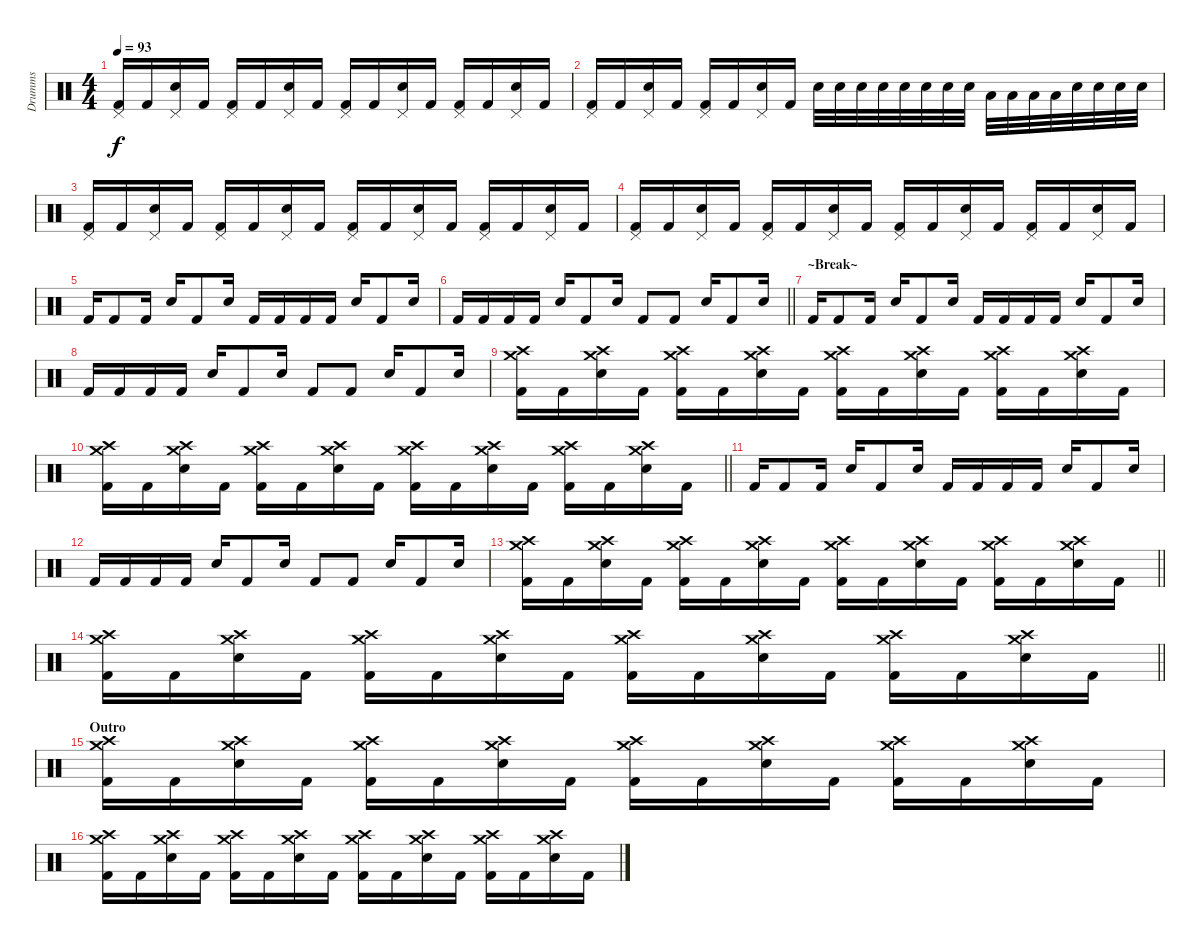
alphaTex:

\track ("Drumms" "Drumms") {instrument percussion}
\staff {score}
\articulation defaults
\ts (4 4)
\tempo 93
\clef neutral
\ks c
("Pedal Hi-Hat (hit)" "Kick (hit) 2").16{dy f} "Kick (hit) 2".16 ("Pedal Hi-Hat (hit)" "Electric Snare (hit)").16 "Kick (hit) 2".16 ("Pedal Hi-Hat (hit)" "Kick (hit) 2").16 "Kick (hit) 2".16 ("Pedal Hi-Hat (hit)" "Electric Snare (hit)").16 "Kick (hit) 2".16 ("Pedal Hi-Hat (hit)" "Kick (hit) 2").16 "Kick (hit) 2".16 ("Pedal Hi-Hat (hit)" "Electric Snare (hit)").16 "Kick (hit) 2".16 ("Pedal Hi-Hat (hit)" "Kick (hit) 2").16 "Kick (hit) 2".16 ("Pedal Hi-Hat (hit)" "Electric Snare (hit)").16 "Kick (hit) 2".16 |
("Pedal Hi-Hat (hit)" "Kick (hit) 2").16 "Kick (hit) 2".16 ("Pedal Hi-Hat (hit)" "Electric Snare (hit)").16 "Kick (hit) 2".16 ("Pedal Hi-Hat (hit)" "Kick (hit) 2").16 "Kick (hit) 2".16 ("Pedal Hi-Hat (hit)" "Electric Snare (hit)").16 "Kick (hit) 2".16 "Electric Snare (hit)".32 "Electric Snare (hit)".32 "Electric Snare (hit)".32 "Electric Snare (hit)".32 "Snare (hit) 2".32 "Snare (hit) 2".32 "Snare (hit) 2".32 "Snare (hit) 2".32 "Low Tom (hit)".32 "Low Tom (hit)".32 "Low Tom (hit)".32 "Low Tom (hit)".32 "Snare (hit) 2".32 "Snare (hit) 2".32 "Snare (hit) 2".32 "Snare (hit) 2".32 |
("Pedal Hi-Hat (hit)" "Kick (hit) 2").16 "Kick (hit) 2".16 ("Pedal Hi-Hat (hit)" "Electric Snare (hit)").16 "Kick (hit) 2".16 ("Pedal Hi-Hat (hit)" "Kick (hit) 2").16 "Kick (hit) 2".16 ("Pedal Hi-Hat (hit)" "Electric Snare (hit)").16 "Kick (hit) 2".16 ("Pedal Hi-Hat (hit)" "Kick (hit) 2").16 "Kick (hit) 2".16 ("Pedal Hi-Hat (hit)" "Electric Snare (hit)").16 "Kick (hit) 2".16 ("Pedal Hi-Hat (hit)" "Kick (hit) 2").16 "Kick (hit) 2".16 ("Pedal Hi-Hat (hit)" "Electric Snare (hit)").16 "Kick (hit) 2".16 |
("Pedal Hi-Hat (hit)" "Kick (hit) 2").16 "Kick (hit) 2".16 ("Pedal Hi-Hat (hit)" "Electric Snare (hit)").16 "Kick (hit) 2".16 ("Pedal Hi-Hat (hit)" "Kick (hit) 2").16 "Kick (hit) 2".16 ("Pedal Hi-Hat (hit)" "Electric Snare (hit)").16 "Kick (hit) 2".16 ("Pedal Hi-Hat (hit)" "Kick (hit) 2").16 "Kick (hit) 2".16 ("Pedal Hi-Hat (hit)" "Electric Snare (hit)").16 "Kick (hit) 2".16 ("Pedal Hi-Hat (hit)" "Kick (hit) 2").16 "Kick (hit) 2".16 ("Pedal Hi-Hat (hit)" "Electric Snare (hit)").16 "Kick (hit) 2".16 |
"Kick (hit) 2".16 "Kick (hit) 2".8 "Kick (hit) 2".16 "Electric Snare (hit)".16 "Kick (hit) 2".8 "Electric Snare (hit)".16 "Kick (hit) 2".16 "Kick (hit) 2".16 "Kick (hit) 2".16 "Kick (hit) 2".16 "Electric Snare (hit)".16 "Kick (hit) 2".8 "Electric Snare (hit)".16 |
\barLineRight lightlight "Kick (hit) 2".16 "Kick (hit) 2".16 "Kick (hit) 2".16 "Kick (hit) 2".16 "Electric Snare (hit)".16 "Kick (hit) 2".8 "Electric Snare (hit)".16 "Kick (hit) 2".8 "Kick (hit) 2".8 "Electric Snare (hit)".16 "Kick (hit) 2".8 "Electric Snare (hit)".16
|
\section ("" "~Break~")
"Kick (hit) 2".16 "Kick (hit) 2".8 "Kick (hit) 2".16 "Electric Snare (hit)".16 "Kick (hit) 2".8 "Electric Snare (hit)".16 "Kick (hit) 2".16 "Kick (hit) 2".16 "Kick (hit) 2".16 "Kick (hit) 2".16 "Electric Snare (hit)".16 "Kick (hit) 2".8 "Electric Snare (hit)".16 |
"Kick (hit) 2".16 "Kick (hit) 2".16 "Kick (hit) 2".16 "Kick (hit) 2".16 "Electric Snare (hit)".16 "Kick (hit) 2".8 "Electric Snare (hit)".16 "Kick (hit) 2".8 "Kick (hit) 2".8 "Electric Snare (hit)".16 "Kick (hit) 2".8 "Electric Snare (hit)".16 |
("Crash medium (hit)" "Crash high (hit)" "Kick (hit) 2").16 "Kick (hit) 2".16 ("Crash medium (hit)" "Crash high (hit)" "Electric Snare (hit)").16 "Kick (hit) 2".16 ("Crash medium (hit)" "Crash high (hit)" "Kick (hit) 2").16 "Kick (hit) 2".16 ("Crash medium (hit)" "Crash high (hit)" "Electric Snare (hit)").16 "Kick (hit) 2".16 ("Crash medium (hit)" "Crash high (hit)" "Kick (hit) 2").16 "Kick (hit) 2".16 ("Crash medium (hit)" "Crash high (hit)" "Electric Snare (hit)").16 "Kick (hit) 2".16 ("Crash medium (hit)" "Crash high (hit)" "Kick (hit) 2").16 "Kick (hit) 2".16 ("Crash medium (hit)" "Crash high (hit)" "Electric Snare (hit)").16 "Kick (hit) 2".16 |
\barLineRight lightlight
("Crash medium (hit)" "Crash high (hit)" "Kick (hit) 2").16 "Kick (hit) 2".16 ("Crash medium (hit)" "Crash high (hit)" "Electric Snare (hit)").16 "Kick (hit) 2".16 ("Crash medium (hit)" "Crash high (hit)" "Kick (hit) 2").16 "Kick (hit) 2".16 ("Crash medium (hit)" "Crash high (hit)" "Electric Snare (hit)").16 "Kick (hit) 2".16 ("Crash medium (hit)" "Crash high (hit)" "Kick (hit) 2").16 "Kick (hit) 2".16 ("Crash medium (hit)" "Crash high (hit)" "Electric Snare (hit)").16 "Kick (hit) 2".16 ("Crash medium (hit)" "Crash high (hit)" "Kick (hit) 2").16 "Kick (hit) 2".16 ("Crash medium (hit)" "Crash high (hit)" "Electric Snare (hit)").16 "Kick (hit) 2".16 |
"Kick (hit) 2".16 "Kick (hit) 2".8 "Kick (hit) 2".16 "Electric Snare (hit)".16 "Kick (hit) 2".8 "Electric Snare (hit)".16 "Kick (hit) 2".16 "Kick (hit) 2".16 "Kick (hit) 2".16 "Kick (hit) 2".16 "Electric Snare (hit)".16 "Kick (hit) 2".8 "Electric Snare (hit)".16 |
"Kick (hit) 2".16 "Kick (hit) 2".16 "Kick (hit) 2".16 "Kick (hit) 2".16 "Electric Snare (hit)".16 "Kick (hit) 2".8 "Electric Snare (hit)".16 "Kick (hit) 2".8 "Kick (hit) 2".8 "Electric Snare (hit)".16 "Kick (hit) 2".8 "Electric Snare (hit)".16 |
\barLineRight lightlight
("Crash medium (hit)" "Crash high (hit)" "Kick (hit) 2").16 "Kick (hit) 2".16 ("Crash medium (hit)" "Crash high (hit)" "Electric Snare (hit)").16 "Kick (hit) 2".16 ("Crash medium (hit)" "Crash high (hit)" "Kick (hit) 2").16 "Kick (hit) 2".16 ("Crash medium (hit)" "Crash high (hit)" "Electric Snare (hit)").16 "Kick (hit) 2".16 ("Crash medium (hit)" "Crash high (hit)" "Kick (hit) 2").16 "Kick (hit) 2".16 ("Crash medium (hit)" "Crash high (hit)" "Electric Snare (hit)").16 "Kick (hit) 2".16 ("Crash medium (hit)" "Crash high (hit)" "Kick (hit) 2").16 "Kick (hit) 2".16 ("Crash medium (hit)" "Crash high (hit)" "Electric Snare (hit)").16 "Kick (hit) 2".16 |
\barLineRight lightlight
("Crash medium (hit)" "Crash high (hit)" "Kick (hit) 2").16 "Kick (hit) 2".16 ("Crash medium (hit)" "Crash high (hit)" "Electric Snare (hit)").16 "Kick (hit) 2".16 ("Crash medium (hit)" "Crash high (hit)" "Kick (hit) 2").16 "Kick (hit) 2".16 ("Crash medium (hit)" "Crash high (hit)" "Electric Snare (hit)").16 "Kick (hit) 2".16 ("Crash medium (hit)" "Crash high (hit)" "Kick (hit) 2").16 "Kick (hit) 2".16 ("Crash medium (hit)" "Crash high (hit)" "Electric Snare (hit)").16 "Kick (hit) 2".16 ("Crash medium (hit)" "Crash high (hit)" "Kick (hit) 2").16 "Kick (hit) 2".16 ("Crash medium (hit)" "Crash high (hit)" "Electric Snare (hit)").16 "Kick (hit) 2".16 |
\section ("" "Outro")
("Crash medium (hit)" "Crash high (hit)" "Kick (hit) 2").16 "Kick (hit) 2".16 ("Crash medium (hit)" "Crash high (hit)" "Electric Snare (hit)").16 "Kick (hit) 2".16 ("Crash medium (hit)" "Crash high (hit)" "Kick (hit) 2").16 "Kick (hit) 2".16 ("Crash medium (hit)" "Crash high (hit)" "Electric Snare (hit)").16 "Kick (hit) 2".16 ("Crash medium (hit)" "Crash high (hit)" "Kick (hit) 2").16 "Kick (hit) 2".16 ("Crash medium (hit)" "Crash high (hit)" "Electric Snare (hit)").16 "Kick (hit) 2".16 ("Crash medium (hit)" "Crash high (hit)" "Kick (hit) 2").16 "Kick (hit) 2".16 ("Crash medium (hit)" "Crash high (hit)" "Electric Snare (hit)").16 "Kick (hit) 2".16 |
("Crash medium (hit)" "Crash high (hit)" "Kick (hit) 2").16 "Kick (hit) 2".16 ("Crash medium (hit)" "Crash high (hit)" "Electric Snare (hit)").16 "Kick (hit) 2".16 ("Crash medium (hit)" "Crash high (hit)" "Kick (hit) 2").16 "Kick (hit) 2".16 ("Crash medium (hit)" "Crash high (hit)" "Electric Snare (hit)").16 "Kick (hit) 2".16 ("Crash medium (hit)" "Crash high (hit)" "Kick (hit) 2").16 "Kick (hit) 2".16 ("Crash medium (hit)" "Crash high (hit)" "Electric Snare (hit)").16 "Kick (hit) 2".16 ("Crash medium (hit)" "Crash high (hit)" "Kick (hit) 2").16 "Kick (hit) 2".16 ("Crash medium (hit)" "Crash high (hit)" "Electric Snare (hit)").16 "Kick (hit) 2".16
